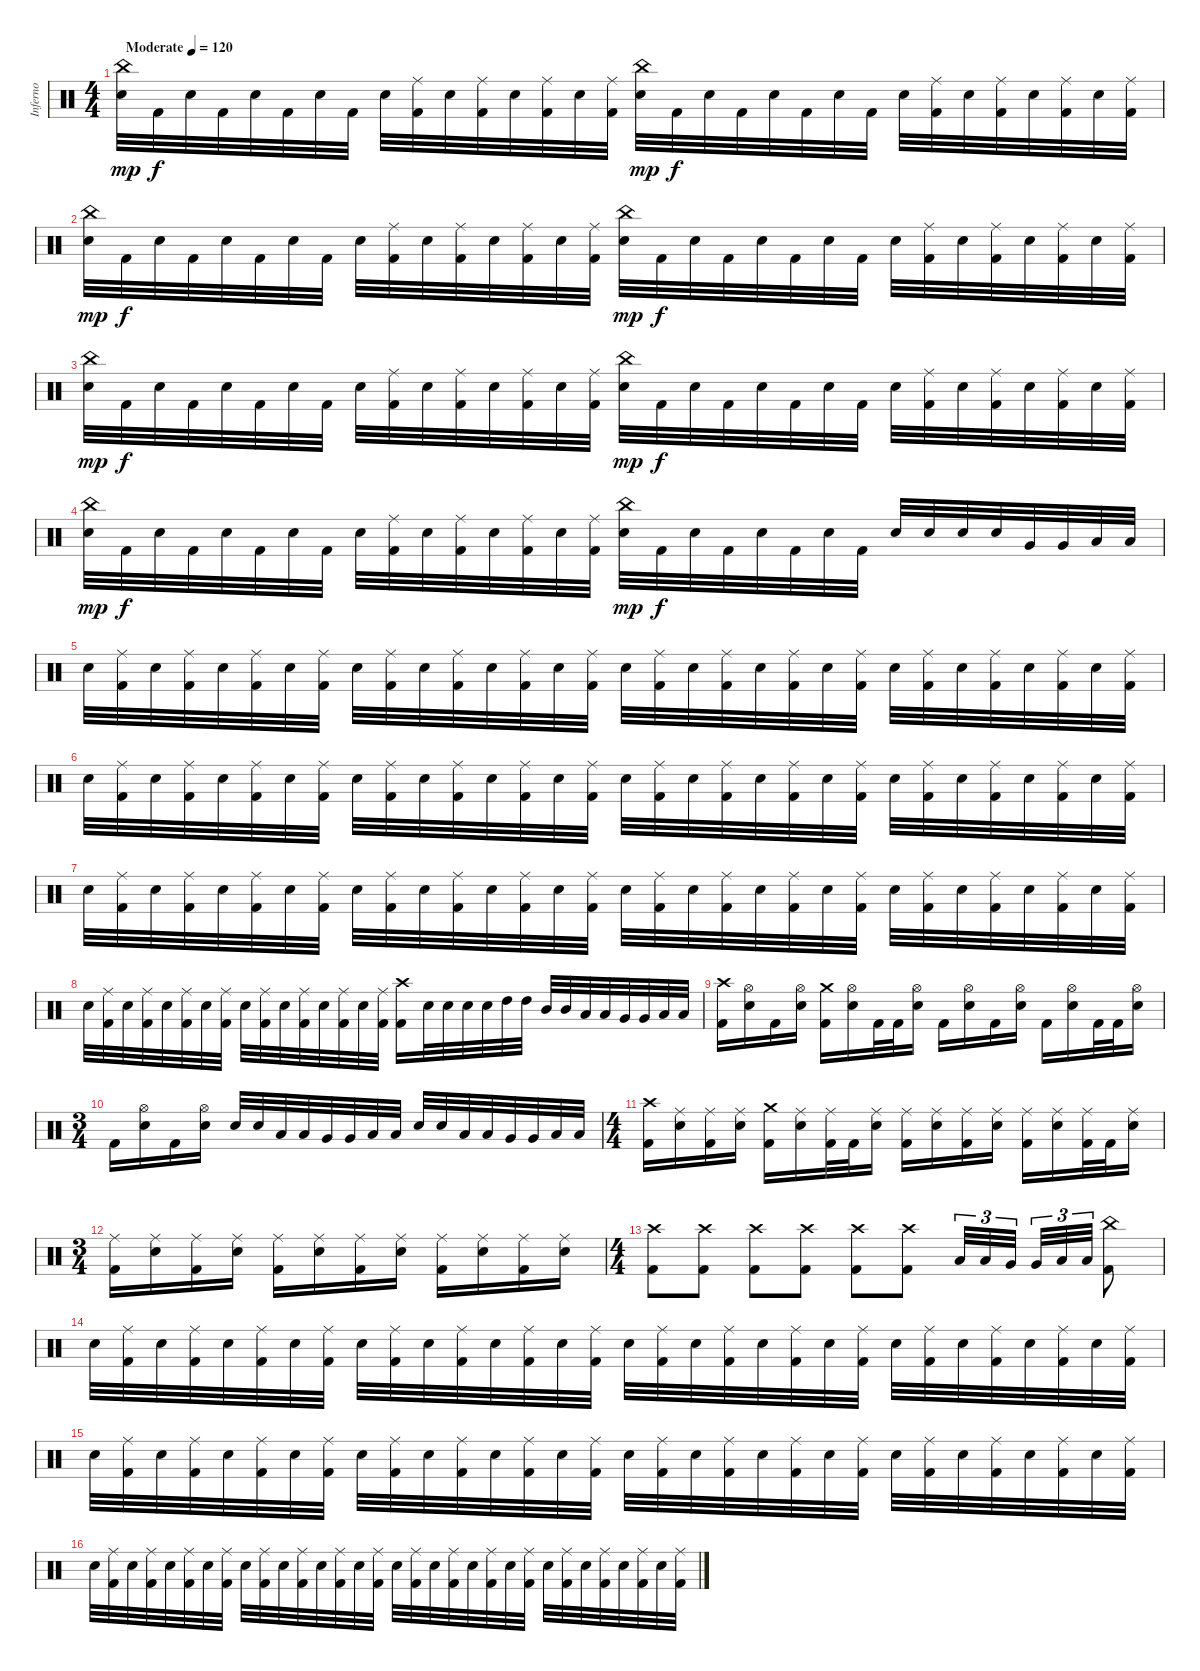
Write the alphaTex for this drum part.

\track ("Inferno" "Inferno") {instrument percussion}
\staff {score}
\articulation defaults
\ts (4 4)
\tempo (120 "Moderate")
\clef neutral
\ks c
("China (hit)" "Electric Snare (hit)").32{dy mp} "Kick (hit) 2".32{dy f} "Electric Snare (hit)".32 "Kick (hit) 2".32 "Electric Snare (hit)".32 "Kick (hit) 2".32 "Electric Snare (hit)".32 "Kick (hit) 2".32 "Electric Snare (hit)".32 ("Ride (middle)" "Kick (hit) 2").32 "Electric Snare (hit)".32 ("Ride (middle)" "Kick (hit) 2").32 "Electric Snare (hit)".32 ("Ride (middle)" "Kick (hit) 2").32 "Electric Snare (hit)".32 ("Ride (middle)" "Kick (hit) 2").32 ("China (hit)" "Electric Snare (hit)").32{dy mp} "Kick (hit) 2".32{dy f} "Electric Snare (hit)".32 "Kick (hit) 2".32 "Electric Snare (hit)".32 "Kick (hit) 2".32 "Electric Snare (hit)".32 "Kick (hit) 2".32 "Electric Snare (hit)".32 ("Ride (middle)" "Kick (hit) 2").32 "Electric Snare (hit)".32 ("Ride (middle)" "Kick (hit) 2").32 "Electric Snare (hit)".32 ("Ride (middle)" "Kick (hit) 2").32 "Electric Snare (hit)".32 ("Ride (middle)" "Kick (hit) 2").32 |
("China (hit)" "Electric Snare (hit)").32{dy mp} "Kick (hit) 2".32{dy f} "Electric Snare (hit)".32 "Kick (hit) 2".32 "Electric Snare (hit)".32 "Kick (hit) 2".32 "Electric Snare (hit)".32 "Kick (hit) 2".32 "Electric Snare (hit)".32 ("Ride (middle)" "Kick (hit) 2").32 "Electric Snare (hit)".32 ("Ride (middle)" "Kick (hit) 2").32 "Electric Snare (hit)".32 ("Ride (middle)" "Kick (hit) 2").32 "Electric Snare (hit)".32 ("Ride (middle)" "Kick (hit) 2").32 ("China (hit)" "Electric Snare (hit)").32{dy mp} "Kick (hit) 2".32{dy f} "Electric Snare (hit)".32 "Kick (hit) 2".32 "Electric Snare (hit)".32 "Kick (hit) 2".32 "Electric Snare (hit)".32 "Kick (hit) 2".32 "Electric Snare (hit)".32 ("Ride (middle)" "Kick (hit) 2").32 "Electric Snare (hit)".32 ("Ride (middle)" "Kick (hit) 2").32 "Electric Snare (hit)".32 ("Ride (middle)" "Kick (hit) 2").32 "Electric Snare (hit)".32 ("Ride (middle)" "Kick (hit) 2").32 |
("China (hit)" "Electric Snare (hit)").32{dy mp} "Kick (hit) 2".32{dy f} "Electric Snare (hit)".32 "Kick (hit) 2".32 "Electric Snare (hit)".32 "Kick (hit) 2".32 "Electric Snare (hit)".32 "Kick (hit) 2".32 "Electric Snare (hit)".32 ("Ride (middle)" "Kick (hit) 2").32 "Electric Snare (hit)".32 ("Ride (middle)" "Kick (hit) 2").32 "Electric Snare (hit)".32 ("Ride (middle)" "Kick (hit) 2").32 "Electric Snare (hit)".32 ("Ride (middle)" "Kick (hit) 2").32 ("China (hit)" "Electric Snare (hit)").32{dy mp} "Kick (hit) 2".32{dy f} "Electric Snare (hit)".32 "Kick (hit) 2".32 "Electric Snare (hit)".32 "Kick (hit) 2".32 "Electric Snare (hit)".32 "Kick (hit) 2".32 "Electric Snare (hit)".32 ("Ride (middle)" "Kick (hit) 2").32 "Electric Snare (hit)".32 ("Ride (middle)" "Kick (hit) 2").32 "Electric Snare (hit)".32 ("Ride (middle)" "Kick (hit) 2").32 "Electric Snare (hit)".32 ("Ride (middle)" "Kick (hit) 2").32 |
("China (hit)" "Electric Snare (hit)").32{dy mp} "Kick (hit) 2".32{dy f} "Electric Snare (hit)".32 "Kick (hit) 2".32 "Electric Snare (hit)".32 "Kick (hit) 2".32 "Electric Snare (hit)".32 "Kick (hit) 2".32 "Electric Snare (hit)".32 ("Ride (middle)" "Kick (hit) 2").32 "Electric Snare (hit)".32 ("Ride (middle)" "Kick (hit) 2").32 "Electric Snare (hit)".32 ("Ride (middle)" "Kick (hit) 2").32 "Electric Snare (hit)".32 ("Ride (middle)" "Kick (hit) 2").32 ("China (hit)" "Electric Snare (hit)").32{dy mp} "Kick (hit) 2".32{dy f} "Electric Snare (hit)".32 "Kick (hit) 2".32 "Electric Snare (hit)".32 "Kick (hit) 2".32 "Electric Snare (hit)".32 "Kick (hit) 2".32 "Electric Snare (hit)".32 "Electric Snare (hit)".32 "Electric Snare (hit)".32 "Electric Snare (hit)".32 "Very Low Tom (hit)".32 "Very Low Tom (hit)".32 "Low Floor Tom (hit)".32 "Low Floor Tom (hit)".32 |
"Electric Snare (hit)".32 ("Ride (middle)" "Kick (hit) 2").32 "Electric Snare (hit)".32 ("Ride (middle)" "Kick (hit) 2").32 "Electric Snare (hit)".32 ("Ride (middle)" "Kick (hit) 2").32 "Electric Snare (hit)".32 ("Ride (middle)" "Kick (hit) 2").32 "Electric Snare (hit)".32 ("Ride (middle)" "Kick (hit) 2").32 "Electric Snare (hit)".32 ("Ride (middle)" "Kick (hit) 2").32 "Electric Snare (hit)".32 ("Ride (middle)" "Kick (hit) 2").32 "Electric Snare (hit)".32 ("Ride (middle)" "Kick (hit) 2").32 "Electric Snare (hit)".32 ("Ride (middle)" "Kick (hit) 2").32 "Electric Snare (hit)".32 ("Ride (middle)" "Kick (hit) 2").32 "Electric Snare (hit)".32 ("Ride (middle)" "Kick (hit) 2").32 "Electric Snare (hit)".32 ("Ride (middle)" "Kick (hit) 2").32 "Electric Snare (hit)".32 ("Ride (middle)" "Kick (hit) 2").32 "Electric Snare (hit)".32 ("Ride (middle)" "Kick (hit) 2").32 "Electric Snare (hit)".32 ("Ride (middle)" "Kick (hit) 2").32 "Electric Snare (hit)".32 ("Ride (middle)" "Kick (hit) 2").32 |
"Electric Snare (hit)".32 ("Ride (middle)" "Kick (hit) 2").32 "Electric Snare (hit)".32 ("Ride (middle)" "Kick (hit) 2").32 "Electric Snare (hit)".32 ("Ride (middle)" "Kick (hit) 2").32 "Electric Snare (hit)".32 ("Ride (middle)" "Kick (hit) 2").32 "Electric Snare (hit)".32 ("Ride (middle)" "Kick (hit) 2").32 "Electric Snare (hit)".32 ("Ride (middle)" "Kick (hit) 2").32 "Electric Snare (hit)".32 ("Ride (middle)" "Kick (hit) 2").32 "Electric Snare (hit)".32 ("Ride (middle)" "Kick (hit) 2").32 "Electric Snare (hit)".32 ("Ride (middle)" "Kick (hit) 2").32 "Electric Snare (hit)".32 ("Ride (middle)" "Kick (hit) 2").32 "Electric Snare (hit)".32 ("Ride (middle)" "Kick (hit) 2").32 "Electric Snare (hit)".32 ("Ride (middle)" "Kick (hit) 2").32 "Electric Snare (hit)".32 ("Ride (middle)" "Kick (hit) 2").32 "Electric Snare (hit)".32 ("Ride (middle)" "Kick (hit) 2").32 "Electric Snare (hit)".32 ("Ride (middle)" "Kick (hit) 2").32 "Electric Snare (hit)".32 ("Ride (middle)" "Kick (hit) 2").32 |
"Electric Snare (hit)".32 ("Ride (middle)" "Kick (hit) 2").32 "Electric Snare (hit)".32 ("Ride (middle)" "Kick (hit) 2").32 "Electric Snare (hit)".32 ("Ride (middle)" "Kick (hit) 2").32 "Electric Snare (hit)".32 ("Ride (middle)" "Kick (hit) 2").32 "Electric Snare (hit)".32 ("Ride (middle)" "Kick (hit) 2").32 "Electric Snare (hit)".32 ("Ride (middle)" "Kick (hit) 2").32 "Electric Snare (hit)".32 ("Ride (middle)" "Kick (hit) 2").32 "Electric Snare (hit)".32 ("Ride (middle)" "Kick (hit) 2").32 "Electric Snare (hit)".32 ("Ride (middle)" "Kick (hit) 2").32 "Electric Snare (hit)".32 ("Ride (middle)" "Kick (hit) 2").32 "Electric Snare (hit)".32 ("Ride (middle)" "Kick (hit) 2").32 "Electric Snare (hit)".32 ("Ride (middle)" "Kick (hit) 2").32 "Electric Snare (hit)".32 ("Ride (middle)" "Kick (hit) 2").32 "Electric Snare (hit)".32 ("Ride (middle)" "Kick (hit) 2").32 "Electric Snare (hit)".32 ("Ride (middle)" "Kick (hit) 2").32 "Electric Snare (hit)".32 ("Ride (middle)" "Kick (hit) 2").32 |
"Electric Snare (hit)".32 ("Ride (middle)" "Kick (hit) 2").32 "Electric Snare (hit)".32 ("Ride (middle)" "Kick (hit) 2").32 "Electric Snare (hit)".32 ("Ride (middle)" "Kick (hit) 2").32 "Electric Snare (hit)".32 ("Ride (middle)" "Kick (hit) 2").32 "Electric Snare (hit)".32 ("Ride (middle)" "Kick (hit) 2").32 "Electric Snare (hit)".32 ("Ride (middle)" "Kick (hit) 2").32 "Electric Snare (hit)".32 ("Ride (middle)" "Kick (hit) 2").32 "Electric Snare (hit)".32 ("Ride (middle)" "Kick (hit) 2").32 ("Crash high (hit)" "Kick (hit) 2").16 "Electric Snare (hit)".32 "Electric Snare (hit)".32 "Electric Snare (hit)".32 "Electric Snare (hit)".32 "High Tom (hit)".32 "High Tom (hit)".32 "Mid Tom (hit)".32 "Mid Tom (hit)".32 "Low Tom (hit)".32 "Low Tom (hit)".32 "Very Low Tom (hit)".32 "Very Low Tom (hit)".32 "Low Floor Tom (hit)".32 "Low Floor Tom (hit)".32 |
("Crash high (hit)" "Kick (hit) 2").16 ("Hi-Hat (open)" "Electric Snare (hit)").16 "Kick (hit) 2".16 ("Hi-Hat (open)" "Electric Snare (hit)").16 ("Crash medium (hit)" "Kick (hit) 2").16 ("Hi-Hat (open)" "Electric Snare (hit)").16 "Kick (hit) 2".32 "Kick (hit) 2".32 ("Hi-Hat (open)" "Electric Snare (hit)").16 "Kick (hit) 2".16 ("Hi-Hat (open)" "Electric Snare (hit)").16 "Kick (hit) 2".16 ("Hi-Hat (open)" "Electric Snare (hit)").16 "Kick (hit) 2".16 ("Hi-Hat (open)" "Electric Snare (hit)").16 "Kick (hit) 2".32 "Kick (hit) 2".32 ("Hi-Hat (open)" "Electric Snare (hit)").16 |
\ts (3 4)
"Kick (hit) 2".16 ("Hi-Hat (open)" "Electric Snare (hit)").16 "Kick (hit) 2".16 ("Hi-Hat (open)" "Electric Snare (hit)").16 "Electric Snare (hit)".32 "Electric Snare (hit)".32 "Low Tom (hit)".32 "Low Tom (hit)".32 "Very Low Tom (hit)".32 "Very Low Tom (hit)".32 "Low Floor Tom (hit)".32 "Low Floor Tom (hit)".32 "Electric Snare (hit)".32 "Electric Snare (hit)".32 "Low Tom (hit)".32 "Low Tom (hit)".32 "Very Low Tom (hit)".32 "Very Low Tom (hit)".32 "Low Floor Tom (hit)".32 "Low Floor Tom (hit)".32 |
\ts (4 4)
("Crash high (hit)" "Kick (hit) 2").16 ("Ride (middle)" "Electric Snare (hit)").16 ("Ride (middle)" "Kick (hit) 2").16 ("Ride (middle)" "Electric Snare (hit)").16 ("Crash medium (hit)" "Kick (hit) 2").16 ("Ride (middle)" "Electric Snare (hit)").16 ("Ride (middle)" "Kick (hit) 2").32 "Kick (hit) 2".32 ("Ride (middle)" "Electric Snare (hit)").16 ("Ride (middle)" "Kick (hit) 2").16 ("Ride (middle)" "Electric Snare (hit)").16 ("Ride (middle)" "Kick (hit) 2").16 ("Ride (middle)" "Electric Snare (hit)").16 ("Ride (middle)" "Kick (hit) 2").16 ("Ride (middle)" "Electric Snare (hit)").16 ("Ride (middle)" "Kick (hit) 2").32 "Kick (hit) 2".32 ("Ride (middle)" "Electric Snare (hit)").16 |
\ts (3 4)
("Ride (middle)" "Kick (hit) 2").16 ("Ride (middle)" "Electric Snare (hit)").16 ("Ride (middle)" "Kick (hit) 2").16 ("Ride (middle)" "Electric Snare (hit)").16 ("Ride (middle)" "Kick (hit) 2").16 ("Ride (middle)" "Electric Snare (hit)").16 ("Ride (middle)" "Kick (hit) 2").16 ("Ride (middle)" "Electric Snare (hit)").16 ("Ride (middle)" "Kick (hit) 2").16 ("Ride (middle)" "Electric Snare (hit)").16 ("Ride (middle)" "Kick (hit) 2").16 ("Ride (middle)" "Electric Snare (hit)").16 |
\ts (4 4)
("Crash high (hit)" "Kick (hit) 2").8 ("Crash high (hit)" "Kick (hit) 2").8 ("Crash high (hit)" "Kick (hit) 2").8 ("Crash high (hit)" "Kick (hit) 2").8 ("Crash high (hit)" "Kick (hit) 2").8 ("Crash high (hit)" "Kick (hit) 2").8 "Low Tom (hit)".32{tu (3 2)} "Low Tom (hit)".32{tu (3 2)} "Very Low Tom (hit)".32{tu (3 2) beam splitsecondary} "Very Low Tom (hit)".32{tu (3 2)} "Low Floor Tom (hit)".32{tu (3 2)} "Low Floor Tom (hit)".32{tu (3 2)} ("China (hit)" "Kick (hit) 2").8 |
"Electric Snare (hit)".32 ("Ride (middle)" "Kick (hit) 2").32 "Electric Snare (hit)".32 ("Ride (middle)" "Kick (hit) 2").32 "Electric Snare (hit)".32 ("Ride (middle)" "Kick (hit) 2").32 "Electric Snare (hit)".32 ("Ride (middle)" "Kick (hit) 2").32 "Electric Snare (hit)".32 ("Ride (middle)" "Kick (hit) 2").32 "Electric Snare (hit)".32 ("Ride (middle)" "Kick (hit) 2").32 "Electric Snare (hit)".32 ("Ride (middle)" "Kick (hit) 2").32 "Electric Snare (hit)".32 ("Ride (middle)" "Kick (hit) 2").32 "Electric Snare (hit)".32 ("Ride (middle)" "Kick (hit) 2").32 "Electric Snare (hit)".32 ("Ride (middle)" "Kick (hit) 2").32 "Electric Snare (hit)".32 ("Ride (middle)" "Kick (hit) 2").32 "Electric Snare (hit)".32 ("Ride (middle)" "Kick (hit) 2").32 "Electric Snare (hit)".32 ("Ride (middle)" "Kick (hit) 2").32 "Electric Snare (hit)".32 ("Ride (middle)" "Kick (hit) 2").32 "Electric Snare (hit)".32 ("Ride (middle)" "Kick (hit) 2").32 "Electric Snare (hit)".32 ("Ride (middle)" "Kick (hit) 2").32 |
"Electric Snare (hit)".32 ("Ride (middle)" "Kick (hit) 2").32 "Electric Snare (hit)".32 ("Ride (middle)" "Kick (hit) 2").32 "Electric Snare (hit)".32 ("Ride (middle)" "Kick (hit) 2").32 "Electric Snare (hit)".32 ("Ride (middle)" "Kick (hit) 2").32 "Electric Snare (hit)".32 ("Ride (middle)" "Kick (hit) 2").32 "Electric Snare (hit)".32 ("Ride (middle)" "Kick (hit) 2").32 "Electric Snare (hit)".32 ("Ride (middle)" "Kick (hit) 2").32 "Electric Snare (hit)".32 ("Ride (middle)" "Kick (hit) 2").32 "Electric Snare (hit)".32 ("Ride (middle)" "Kick (hit) 2").32 "Electric Snare (hit)".32 ("Ride (middle)" "Kick (hit) 2").32 "Electric Snare (hit)".32 ("Ride (middle)" "Kick (hit) 2").32 "Electric Snare (hit)".32 ("Ride (middle)" "Kick (hit) 2").32 "Electric Snare (hit)".32 ("Ride (middle)" "Kick (hit) 2").32 "Electric Snare (hit)".32 ("Ride (middle)" "Kick (hit) 2").32 "Electric Snare (hit)".32 ("Ride (middle)" "Kick (hit) 2").32 "Electric Snare (hit)".32 ("Ride (middle)" "Kick (hit) 2").32 |
"Electric Snare (hit)".32 ("Ride (middle)" "Kick (hit) 2").32 "Electric Snare (hit)".32 ("Ride (middle)" "Kick (hit) 2").32 "Electric Snare (hit)".32 ("Ride (middle)" "Kick (hit) 2").32 "Electric Snare (hit)".32 ("Ride (middle)" "Kick (hit) 2").32 "Electric Snare (hit)".32 ("Ride (middle)" "Kick (hit) 2").32 "Electric Snare (hit)".32 ("Ride (middle)" "Kick (hit) 2").32 "Electric Snare (hit)".32 ("Ride (middle)" "Kick (hit) 2").32 "Electric Snare (hit)".32 ("Ride (middle)" "Kick (hit) 2").32 "Electric Snare (hit)".32 ("Ride (middle)" "Kick (hit) 2").32 "Electric Snare (hit)".32 ("Ride (middle)" "Kick (hit) 2").32 "Electric Snare (hit)".32 ("Ride (middle)" "Kick (hit) 2").32 "Electric Snare (hit)".32 ("Ride (middle)" "Kick (hit) 2").32 "Electric Snare (hit)".32 ("Ride (middle)" "Kick (hit) 2").32 "Electric Snare (hit)".32 ("Ride (middle)" "Kick (hit) 2").32 "Electric Snare (hit)".32 ("Ride (middle)" "Kick (hit) 2").32 "Electric Snare (hit)".32 ("Ride (middle)" "Kick (hit) 2").32
